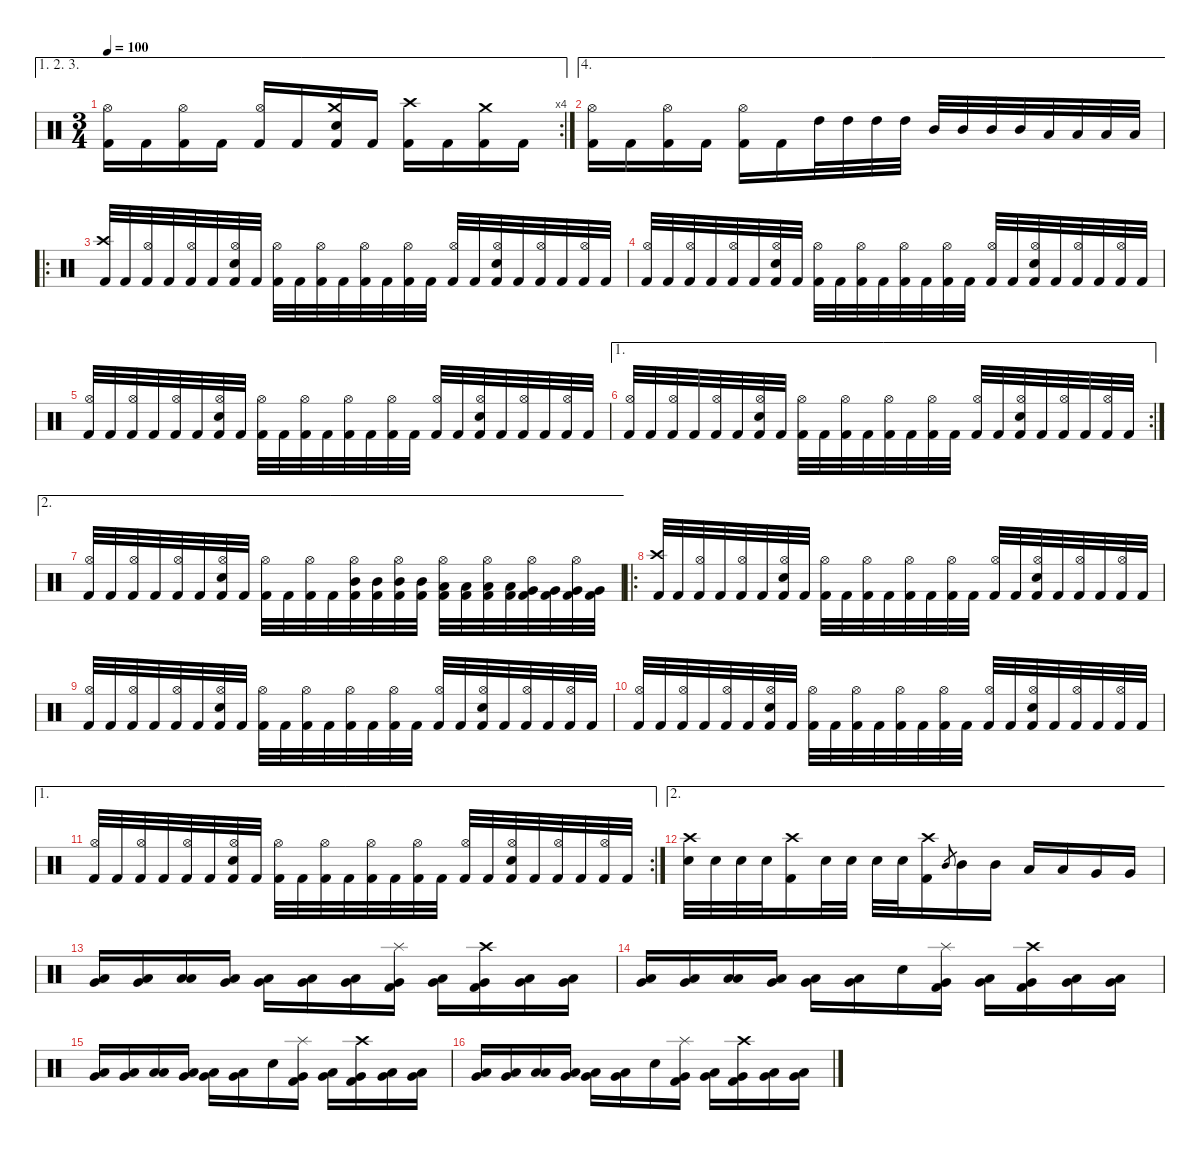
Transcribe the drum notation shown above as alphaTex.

\defaultSystemsLayout 4
\hideDynamics
\bracketExtendMode nobrackets
\singleTrackTrackNamePolicy hidden
\multiTrackTrackNamePolicy hidden
\firstSystemTrackNameMode fullname
\firstSystemTrackNameOrientation horizontal
\otherSystemsTrackNameOrientation horizontal
\track ("Drums" "drm.") {instrument percussion}
\staff {score}
\articulation defaults
\ae (1 2 3)
\rc 4
\ts (3 4)
\tempo 100
\clef neutral
\ks c
("Hi-Hat (open)" "Kick (hit) 2").16{dy mp beam Down} "Kick (hit) 2".16{dy f beam Down} ("Hi-Hat (open)" "Kick (hit) 2").16{dy mp beam Down} "Kick (hit) 2".16{dy f beam Down} ("Hi-Hat (open)" "Kick (hit) 2").16{dy mp beam Up} "Kick (hit) 2".16{dy f beam Up} ("Crash medium (hit)" "Snare (hit) 2" "Kick (hit) 2").16{beam Up} "Kick (hit) 2".16{beam Up} ("Crash high (hit)" "Kick (hit) 2").16{beam Down} "Kick (hit) 2".16{beam Down} ("Crash medium (hit)" "Kick (hit) 2").16{beam Down} "Kick (hit) 2".16{beam Down} |
\ae 4
("Hi-Hat (open)" "Kick (hit) 2").16{dy mp beam Down} "Kick (hit) 2".16{dy f beam Down} ("Hi-Hat (open)" "Kick (hit) 2").16{dy mp beam Down} "Kick (hit) 2".16{dy f beam Down} ("Hi-Hat (open)" "Kick (hit) 2").16{dy mp beam Down} "Kick (hit) 2".16{dy f beam Down} "High Tom (hit)".32{beam Down} "High Tom (hit)".32{dy mf beam Down} "High Tom (hit)".32{dy f beam Down} "High Tom (hit)".32{dy mf beam Down} "Mid Tom (hit)".32{dy f beam Up} "Mid Tom (hit)".32{dy mf beam Up} "Mid Tom (hit)".32{dy f beam Up} "Mid Tom (hit)".32{dy mf beam Up} "Low Tom (hit)".32{dy f beam Up} "Low Tom (hit)".32{dy mf beam Up} "Low Tom (hit)".32{dy f beam Up} "Low Tom (hit)".32{dy mf beam Up} |
\ro
("Crash high (hit)" "Kick (hit) 2").32{dy f beam Up} "Kick (hit) 2".32{beam Up} ("Hi-Hat (open)" "Kick (hit) 2").32{dy mp beam Up} "Kick (hit) 2".32{dy f beam Up} ("Hi-Hat (open)" "Kick (hit) 2").32{dy mp beam Up} "Kick (hit) 2".32{dy f beam Up} ("Hi-Hat (open)" "Snare (hit) 2" "Kick (hit) 2").32{dy mp beam Up} "Kick (hit) 2".32{dy f beam Up} ("Hi-Hat (open)" "Kick (hit) 2").32{dy mp beam Down} "Kick (hit) 2".32{dy f beam Down} ("Hi-Hat (open)" "Kick (hit) 2").32{dy mp beam Down} "Kick (hit) 2".32{dy f beam Down} ("Hi-Hat (open)" "Kick (hit) 2").32{dy mp beam Down} "Kick (hit) 2".32{dy f beam Down} ("Hi-Hat (open)" "Kick (hit) 2").32{dy mp beam Down} "Kick (hit) 2".32{dy f beam Down} ("Hi-Hat (open)" "Kick (hit) 2").32{dy mp beam Up} "Kick (hit) 2".32{dy f beam Up} ("Hi-Hat (open)" "Snare (hit) 2" "Kick (hit) 2").32{dy mp beam Up} "Kick (hit) 2".32{dy f beam Up} ("Hi-Hat (open)" "Kick (hit) 2").32{dy mp beam Up} "Kick (hit) 2".32{dy f beam Up} ("Hi-Hat (open)" "Kick (hit) 2").32{dy mp beam Up} "Kick (hit) 2".32{dy f beam Up} |
("Hi-Hat (open)" "Kick (hit) 2").32{dy mp beam Up} "Kick (hit) 2".32{dy f beam Up} ("Hi-Hat (open)" "Kick (hit) 2").32{dy mp beam Up} "Kick (hit) 2".32{dy f beam Up} ("Hi-Hat (open)" "Kick (hit) 2").32{dy mp beam Up} "Kick (hit) 2".32{dy f beam Up} ("Hi-Hat (open)" "Snare (hit) 2" "Kick (hit) 2").32{dy mp beam Up} "Kick (hit) 2".32{dy f beam Up} ("Hi-Hat (open)" "Kick (hit) 2").32{dy mp beam Down} "Kick (hit) 2".32{dy f beam Down} ("Hi-Hat (open)" "Kick (hit) 2").32{dy mp beam Down} "Kick (hit) 2".32{dy f beam Down} ("Hi-Hat (open)" "Kick (hit) 2").32{dy mp beam Down} "Kick (hit) 2".32{dy f beam Down} ("Hi-Hat (open)" "Kick (hit) 2").32{dy mp beam Down} "Kick (hit) 2".32{dy f beam Down} ("Hi-Hat (open)" "Kick (hit) 2").32{dy mp beam Up} "Kick (hit) 2".32{dy f beam Up} ("Hi-Hat (open)" "Snare (hit) 2" "Kick (hit) 2").32{dy mp beam Up} "Kick (hit) 2".32{dy f beam Up} ("Hi-Hat (open)" "Kick (hit) 2").32{dy mp beam Up} "Kick (hit) 2".32{dy f beam Up} ("Hi-Hat (open)" "Kick (hit) 2").32{dy mp beam Up} "Kick (hit) 2".32{dy f beam Up} |
("Hi-Hat (open)" "Kick (hit) 2").32{dy mp beam Up} "Kick (hit) 2".32{dy f beam Up} ("Hi-Hat (open)" "Kick (hit) 2").32{dy mp beam Up} "Kick (hit) 2".32{dy f beam Up} ("Hi-Hat (open)" "Kick (hit) 2").32{dy mp beam Up} "Kick (hit) 2".32{dy f beam Up} ("Hi-Hat (open)" "Snare (hit) 2" "Kick (hit) 2").32{dy mp beam Up} "Kick (hit) 2".32{dy f beam Up} ("Hi-Hat (open)" "Kick (hit) 2").32{dy mp beam Down} "Kick (hit) 2".32{dy f beam Down} ("Hi-Hat (open)" "Kick (hit) 2").32{dy mp beam Down} "Kick (hit) 2".32{dy f beam Down} ("Hi-Hat (open)" "Kick (hit) 2").32{dy mp beam Down} "Kick (hit) 2".32{dy f beam Down} ("Hi-Hat (open)" "Kick (hit) 2").32{dy mp beam Down} "Kick (hit) 2".32{dy f beam Down} ("Hi-Hat (open)" "Kick (hit) 2").32{dy mp beam Up} "Kick (hit) 2".32{dy f beam Up} ("Hi-Hat (open)" "Snare (hit) 2" "Kick (hit) 2").32{dy mp beam Up} "Kick (hit) 2".32{dy f beam Up} ("Hi-Hat (open)" "Kick (hit) 2").32{dy mp beam Up} "Kick (hit) 2".32{dy f beam Up} ("Hi-Hat (open)" "Kick (hit) 2").32{dy mp beam Up} "Kick (hit) 2".32{dy f beam Up} |
\ae 1
\rc 2
("Hi-Hat (open)" "Kick (hit) 2").32{dy mp beam Up} "Kick (hit) 2".32{dy f beam Up} ("Hi-Hat (open)" "Kick (hit) 2").32{dy mp beam Up} "Kick (hit) 2".32{dy f beam Up} ("Hi-Hat (open)" "Kick (hit) 2").32{dy mp beam Up} "Kick (hit) 2".32{dy f beam Up} ("Hi-Hat (open)" "Snare (hit) 2" "Kick (hit) 2").32{dy mp beam Up} "Kick (hit) 2".32{dy f beam Up} ("Hi-Hat (open)" "Kick (hit) 2").32{dy mp beam Down} "Kick (hit) 2".32{dy f beam Down} ("Hi-Hat (open)" "Kick (hit) 2").32{dy mp beam Down} "Kick (hit) 2".32{dy f beam Down} ("Hi-Hat (open)" "Kick (hit) 2").32{dy mp beam Down} "Kick (hit) 2".32{dy f beam Down} ("Hi-Hat (open)" "Kick (hit) 2").32{dy mp beam Down} "Kick (hit) 2".32{dy f beam Down} ("Hi-Hat (open)" "Kick (hit) 2").32{dy mp beam Up} "Kick (hit) 2".32{dy f beam Up} ("Hi-Hat (open)" "Snare (hit) 2" "Kick (hit) 2").32{dy mp beam Up} "Kick (hit) 2".32{dy f beam Up} ("Hi-Hat (open)" "Kick (hit) 2").32{dy mp beam Up} "Kick (hit) 2".32{dy f beam Up} ("Hi-Hat (open)" "Kick (hit) 2").32{dy mp beam Up} "Kick (hit) 2".32{dy f beam Up} |
\ae 2
("Hi-Hat (open)" "Kick (hit) 2").32{dy mp beam Up} "Kick (hit) 2".32{dy f beam Up} ("Hi-Hat (open)" "Kick (hit) 2").32{dy mp beam Up} "Kick (hit) 2".32{dy f beam Up} ("Hi-Hat (open)" "Kick (hit) 2").32{dy mp beam Up} "Kick (hit) 2".32{dy f beam Up} ("Hi-Hat (open)" "Snare (hit) 2" "Kick (hit) 2").32{dy mp beam Up} "Kick (hit) 2".32{dy f beam Up} ("Hi-Hat (open)" "Kick (hit) 2").32{dy mp beam Down} "Kick (hit) 2".32{dy f beam Down} ("Hi-Hat (open)" "Kick (hit) 2").32{dy mp beam Down} "Kick (hit) 2".32{dy f beam Down} ("Hi-Hat (open)" "Mid Tom (hit)" "Kick (hit) 2").32{dy mp beam Down} ("Mid Tom (hit)" "Kick (hit) 2").32{dy mf beam Down} ("Hi-Hat (open)" "Mid Tom (hit)" "Kick (hit) 2").32{dy mp beam Down} ("Mid Tom (hit)" "Kick (hit) 2").32{dy mf beam Down} ("Hi-Hat (open)" "Low Tom (hit)" "Kick (hit) 2").32{dy mp beam Down} ("Low Tom (hit)" "Kick (hit) 2").32{dy mf beam Down} ("Hi-Hat (open)" "Low Tom (hit)" "Kick (hit) 2").32{dy mp beam Down} ("Low Tom (hit)" "Kick (hit) 2").32{dy mf beam Down} ("Hi-Hat (open)" "Very Low Tom (hit)" "Kick (hit) 2").32{dy mp beam Down} ("Very Low Tom (hit)" "Kick (hit) 2").32{dy mf beam Down} ("Hi-Hat (open)" "Very Low Tom (hit)" "Kick (hit) 2").32{dy mp beam Down} ("Very Low Tom (hit)" "Kick (hit) 2").32{dy mf beam Down} |
\ro
("Crash high (hit)" "Kick (hit) 2").32{dy f beam Up} "Kick (hit) 2".32{beam Up} ("Hi-Hat (open)" "Kick (hit) 2").32{dy mp beam Up} "Kick (hit) 2".32{dy f beam Up} ("Hi-Hat (open)" "Kick (hit) 2").32{dy mp beam Up} "Kick (hit) 2".32{dy f beam Up} ("Hi-Hat (open)" "Snare (hit) 2" "Kick (hit) 2").32{dy mp beam Up} "Kick (hit) 2".32{dy f beam Up} ("Hi-Hat (open)" "Kick (hit) 2").32{dy mp beam Down} "Kick (hit) 2".32{dy f beam Down} ("Hi-Hat (open)" "Kick (hit) 2").32{dy mp beam Down} "Kick (hit) 2".32{dy f beam Down} ("Hi-Hat (open)" "Kick (hit) 2").32{dy mp beam Down} "Kick (hit) 2".32{dy f beam Down} ("Hi-Hat (open)" "Kick (hit) 2").32{dy mp beam Down} "Kick (hit) 2".32{dy f beam Down} ("Hi-Hat (open)" "Kick (hit) 2").32{dy mp beam Up} "Kick (hit) 2".32{dy f beam Up} ("Hi-Hat (open)" "Snare (hit) 2" "Kick (hit) 2").32{dy mp beam Up} "Kick (hit) 2".32{dy f beam Up} ("Hi-Hat (open)" "Kick (hit) 2").32{dy mp beam Up} "Kick (hit) 2".32{dy f beam Up} ("Hi-Hat (open)" "Kick (hit) 2").32{dy mp beam Up} "Kick (hit) 2".32{dy f beam Up} |
("Hi-Hat (open)" "Kick (hit) 2").32{dy mp beam Up} "Kick (hit) 2".32{dy f beam Up} ("Hi-Hat (open)" "Kick (hit) 2").32{dy mp beam Up} "Kick (hit) 2".32{dy f beam Up} ("Hi-Hat (open)" "Kick (hit) 2").32{dy mp beam Up} "Kick (hit) 2".32{dy f beam Up} ("Hi-Hat (open)" "Snare (hit) 2" "Kick (hit) 2").32{dy mp beam Up} "Kick (hit) 2".32{dy f beam Up} ("Hi-Hat (open)" "Kick (hit) 2").32{dy mp beam Down} "Kick (hit) 2".32{dy f beam Down} ("Hi-Hat (open)" "Kick (hit) 2").32{dy mp beam Down} "Kick (hit) 2".32{dy f beam Down} ("Hi-Hat (open)" "Kick (hit) 2").32{dy mp beam Down} "Kick (hit) 2".32{dy f beam Down} ("Hi-Hat (open)" "Kick (hit) 2").32{dy mp beam Down} "Kick (hit) 2".32{dy f beam Down} ("Hi-Hat (open)" "Kick (hit) 2").32{dy mp beam Up} "Kick (hit) 2".32{dy f beam Up} ("Hi-Hat (open)" "Snare (hit) 2" "Kick (hit) 2").32{dy mp beam Up} "Kick (hit) 2".32{dy f beam Up} ("Hi-Hat (open)" "Kick (hit) 2").32{dy mp beam Up} "Kick (hit) 2".32{dy f beam Up} ("Hi-Hat (open)" "Kick (hit) 2").32{dy mp beam Up} "Kick (hit) 2".32{dy f beam Up} |
("Hi-Hat (open)" "Kick (hit) 2").32{dy mp beam Up} "Kick (hit) 2".32{dy f beam Up} ("Hi-Hat (open)" "Kick (hit) 2").32{dy mp beam Up} "Kick (hit) 2".32{dy f beam Up} ("Hi-Hat (open)" "Kick (hit) 2").32{dy mp beam Up} "Kick (hit) 2".32{dy f beam Up} ("Hi-Hat (open)" "Snare (hit) 2" "Kick (hit) 2").32{dy mp beam Up} "Kick (hit) 2".32{dy f beam Up} ("Hi-Hat (open)" "Kick (hit) 2").32{dy mp beam Down} "Kick (hit) 2".32{dy f beam Down} ("Hi-Hat (open)" "Kick (hit) 2").32{dy mp beam Down} "Kick (hit) 2".32{dy f beam Down} ("Hi-Hat (open)" "Kick (hit) 2").32{dy mp beam Down} "Kick (hit) 2".32{dy f beam Down} ("Hi-Hat (open)" "Kick (hit) 2").32{dy mp beam Down} "Kick (hit) 2".32{dy f beam Down} ("Hi-Hat (open)" "Kick (hit) 2").32{dy mp beam Up} "Kick (hit) 2".32{dy f beam Up} ("Hi-Hat (open)" "Snare (hit) 2" "Kick (hit) 2").32{dy mp beam Up} "Kick (hit) 2".32{dy f beam Up} ("Hi-Hat (open)" "Kick (hit) 2").32{dy mp beam Up} "Kick (hit) 2".32{dy f beam Up} ("Hi-Hat (open)" "Kick (hit) 2").32{dy mp beam Up} "Kick (hit) 2".32{dy f beam Up} |
\ae 1
\rc 2
("Hi-Hat (open)" "Kick (hit) 2").32{dy mp beam Up} "Kick (hit) 2".32{dy f beam Up} ("Hi-Hat (open)" "Kick (hit) 2").32{dy mp beam Up} "Kick (hit) 2".32{dy f beam Up} ("Hi-Hat (open)" "Kick (hit) 2").32{dy mp beam Up} "Kick (hit) 2".32{dy f beam Up} ("Hi-Hat (open)" "Snare (hit) 2" "Kick (hit) 2").32{dy mp beam Up} "Kick (hit) 2".32{dy f beam Up} ("Hi-Hat (open)" "Kick (hit) 2").32{dy mp beam Down} "Kick (hit) 2".32{dy f beam Down} ("Hi-Hat (open)" "Kick (hit) 2").32{dy mp beam Down} "Kick (hit) 2".32{dy f beam Down} ("Hi-Hat (open)" "Kick (hit) 2").32{dy mp beam Down} "Kick (hit) 2".32{dy f beam Down} ("Hi-Hat (open)" "Kick (hit) 2").32{dy mp beam Down} "Kick (hit) 2".32{dy f beam Down} ("Hi-Hat (open)" "Kick (hit) 2").32{dy mp beam Up} "Kick (hit) 2".32{dy f beam Up} ("Hi-Hat (open)" "Snare (hit) 2" "Kick (hit) 2").32{dy mp beam Up} "Kick (hit) 2".32{dy f beam Up} ("Hi-Hat (open)" "Kick (hit) 2").32{dy mp beam Up} "Kick (hit) 2".32{dy f beam Up} ("Hi-Hat (open)" "Kick (hit) 2").32{dy mp beam Up} "Kick (hit) 2".32{dy f beam Up} |
\ae 2
("Crash high (hit)" "Snare (hit) 2").32{dy mp beam Down} "Snare (hit) 2".32{beam Down} "Snare (hit) 2".32{dy mf beam Down} "Snare (hit) 2".32{beam Down} ("Crash high (hit)" "Kick (hit) 2").16{dy mp beam Down} "Snare (hit) 2".32{dy p beam Down} "Snare (hit) 2".32{dy mp beam Down} "Snare (hit) 2".32{dy mf beam Down} "Snare (hit) 2".32{beam Down} ("Crash high (hit)" "Kick (hit) 2").16{dy mp beam Down} "Mid Tom (hit)".8{gr dy mf beam Up} "Mid Tom (hit)".16{dy f beam Down} "Mid Tom (hit)".16{beam Down} "Low Tom (hit)".16{beam Up} "Low Tom (hit)".16{beam Up} "Very Low Tom (hit)".16{beam Up} "Very Low Tom (hit)".16{beam Up} |
("Low Tom (hit)" "Very Low Tom (hit)").16{dy mf beam Up} ("Low Tom (hit)" "Very Low Tom (hit)").16{dy f beam Up} ("Low Tom (hit)" "Low Tom (hit)").16{dy mf beam Up} ("Low Tom (hit)" "Very Low Tom (hit)").16{dy f beam Up} ("Low Tom (hit)" "Very Low Tom (hit)").16{dy mp beam Down} ("Low Tom (hit)" "Very Low Tom (hit)").16{dy f beam Down} ("Low Tom (hit)" "Very Low Tom (hit)").16{dy mf beam Down} ("Splash (hit)" "Very Low Tom (hit)" "Kick (hit) 2").16{dy ff beam Down} ("Low Tom (hit)" "Very Low Tom (hit)").16{dy mp beam Down} ("Crash high (hit)" "Very Low Tom (hit)" "Kick (hit) 2").16{dy f beam Down} ("Low Tom (hit)" "Very Low Tom (hit)").16{dy mf beam Down} ("Low Tom (hit)" "Very Low Tom (hit)").16{dy f beam Down} |
("Low Tom (hit)" "Very Low Tom (hit)").16{dy mf beam Up} ("Low Tom (hit)" "Very Low Tom (hit)").16{dy f beam Up} ("Low Tom (hit)" "Low Tom (hit)").16{dy mf beam Up} ("Low Tom (hit)" "Very Low Tom (hit)").16{dy f beam Up} ("Low Tom (hit)" "Very Low Tom (hit)").16{dy mp beam Down} ("Low Tom (hit)" "Very Low Tom (hit)").16{dy f beam Down} "Snare (hit) 2".16{beam Down} ("Splash (hit)" "Very Low Tom (hit)" "Kick (hit) 2").16{dy ff beam Down} ("Low Tom (hit)" "Very Low Tom (hit)").16{dy mp beam Down} ("Crash high (hit)" "Very Low Tom (hit)" "Kick (hit) 2").16{dy f beam Down} ("Low Tom (hit)" "Very Low Tom (hit)").16{dy mf beam Down} ("Low Tom (hit)" "Very Low Tom (hit)").16{dy f beam Down} |
("Low Tom (hit)" "Very Low Tom (hit)").16{dy mf beam Up} ("Low Tom (hit)" "Very Low Tom (hit)").16{dy f beam Up} ("Low Tom (hit)" "Low Tom (hit)").16{dy mf beam Up} ("Low Tom (hit)" "Very Low Tom (hit)").16{dy f beam Up} ("Low Tom (hit)" "Very Low Tom (hit)").16{dy mp beam Down} ("Low Tom (hit)" "Very Low Tom (hit)").16{dy f beam Down} "Snare (hit) 2".16{beam Down} ("Splash (hit)" "Very Low Tom (hit)" "Kick (hit) 2").16{dy ff beam Down} ("Low Tom (hit)" "Very Low Tom (hit)").16{dy mp beam Down} ("Crash high (hit)" "Very Low Tom (hit)" "Kick (hit) 2").16{dy f beam Down} ("Low Tom (hit)" "Very Low Tom (hit)").16{dy mf beam Down} ("Low Tom (hit)" "Very Low Tom (hit)").16{dy f beam Down} |
("Low Tom (hit)" "Very Low Tom (hit)").16{dy mf beam Up} ("Low Tom (hit)" "Very Low Tom (hit)").16{dy f beam Up} ("Low Tom (hit)" "Low Tom (hit)").16{dy mf beam Up} ("Low Tom (hit)" "Very Low Tom (hit)").16{dy f beam Up} ("Low Tom (hit)" "Very Low Tom (hit)").16{dy mp beam Down} ("Low Tom (hit)" "Very Low Tom (hit)").16{dy f beam Down} "Snare (hit) 2".16{beam Down} ("Splash (hit)" "Very Low Tom (hit)" "Kick (hit) 2").16{dy ff beam Down} ("Low Tom (hit)" "Very Low Tom (hit)").16{dy mp beam Down} ("Crash high (hit)" "Very Low Tom (hit)" "Kick (hit) 2").16{dy f beam Down} ("Low Tom (hit)" "Very Low Tom (hit)").16{dy mf beam Down} ("Low Tom (hit)" "Very Low Tom (hit)").16{dy f beam Down}
